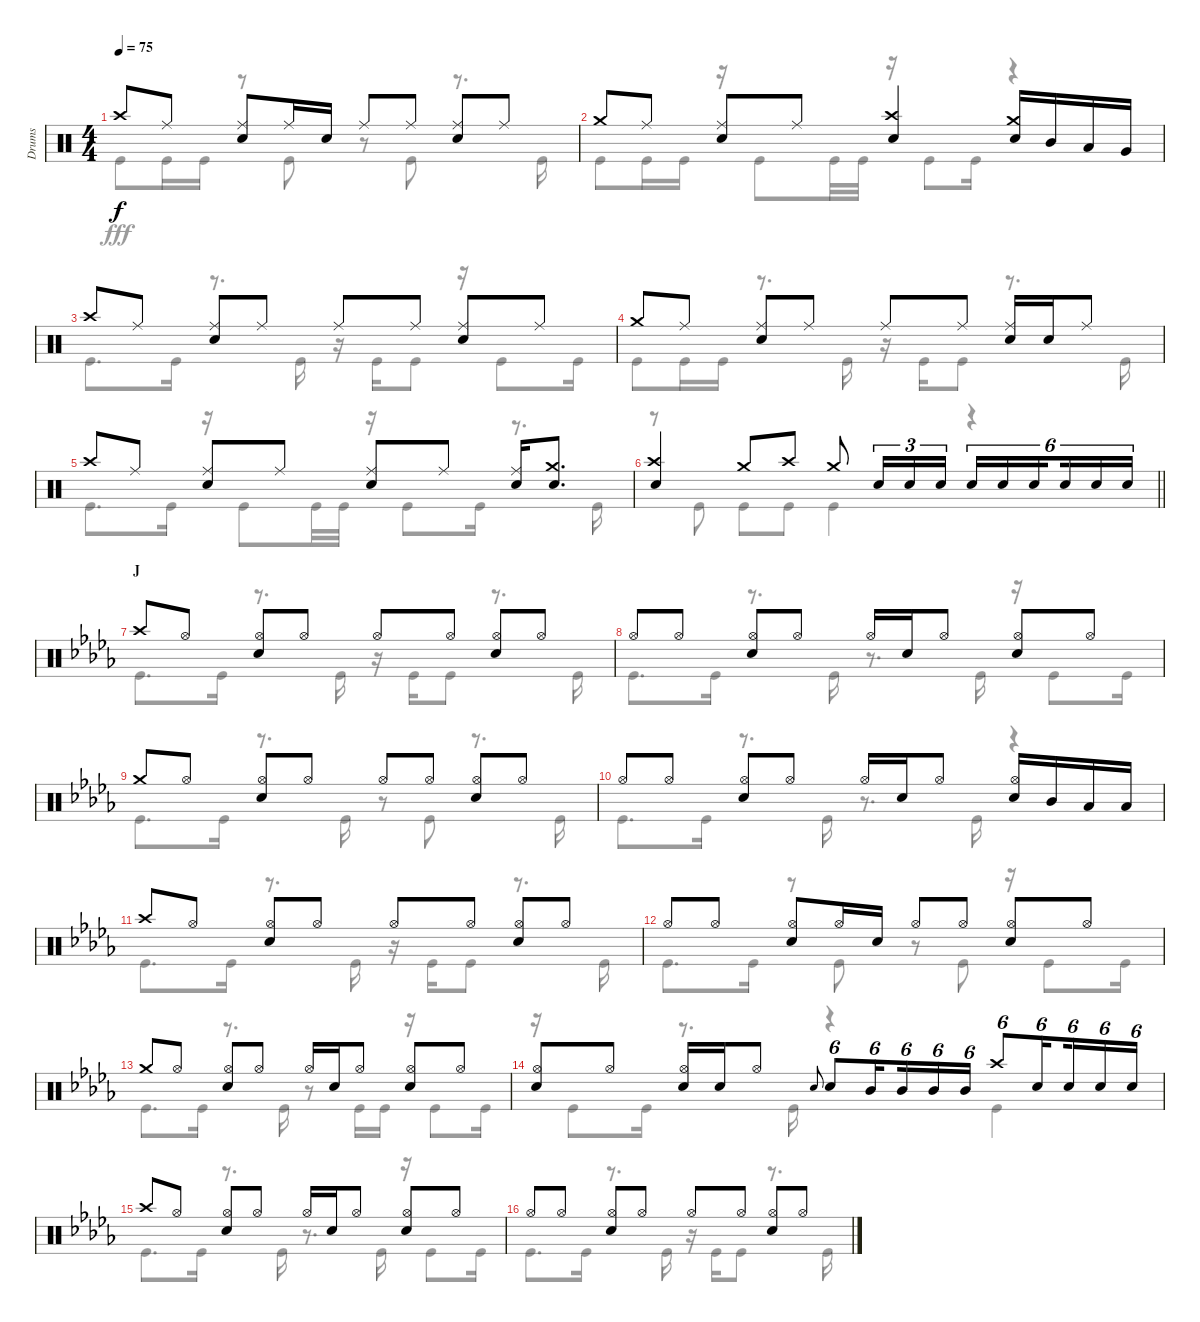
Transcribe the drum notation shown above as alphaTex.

\track ("Drums" "Drums") {instrument percussion}
\staff {score}
\articulation defaults
\voice
\ts (4 4)
\tempo 75
\clef neutral
\ks c "Crash high (hit)".8{dy f} "Ride (middle)".8
("Ride (middle)" "Snare (hit) 2").8 "Ride (middle)".16 "Snare (hit) 2".16 "Ride (middle)".8 "Ride (middle)".8 ("Ride (middle)" "Snare (hit) 2").8 "Ride (middle)".8 |
"Crash medium (hit)".8 "Ride (middle)".8 ("Ride (middle)" "Snare (hit) 2").8 "Ride (middle)".8 ("Crash high (hit)" "Snare (hit) 2").4 ("Crash medium (hit)" "Snare (hit) 2").16 "Mid Tom (hit)".16 "Low Tom (hit)".16 "Very Low Tom (hit)".16 |
"Crash high (hit)".8 "Ride (middle)".8 ("Ride (middle)" "Snare (hit) 2").8 "Ride (middle)".8 "Ride (middle)".8 "Ride (middle)".8 ("Ride (middle)" "Snare (hit) 2").8 "Ride (middle)".8 |
"Crash medium (hit)".8 "Ride (middle)".8 ("Ride (middle)" "Snare (hit) 2").8 "Ride (middle)".8 "Ride (middle)".8 "Ride (middle)".8 ("Ride (middle)" "Snare (hit) 2").16 "Snare (hit) 2".16 "Ride (middle)".8 |
"Crash high (hit)".8 "Ride (middle)".8 ("Ride (middle)" "Snare (hit) 2").8 "Ride (middle)".8 ("Ride (middle)" "Snare (hit) 2").8 "Ride (middle)".8 ("Ride (middle)" "Snare (hit) 2").16 ("Crash medium (hit)" "Snare (hit) 2").8{d} |
\barLineRight lightlight
("Crash high (hit)" "Snare (hit) 2").4 "Crash medium (hit)".8 "Crash high (hit)".8 "Crash medium (hit)".8 "Snare (hit) 2".16{tu (3 2)} "Snare (hit) 2".16{tu (3 2)} "Snare (hit) 2".16{tu (3 2)} "Snare (hit) 2".16{tu (6 4)} "Snare (hit) 2".16{tu (6 4)} "Snare (hit) 2".16{tu (6 4) beam splitsecondary} "Snare (hit) 2".16{tu (6 4)} "Snare (hit) 2".16{tu (6 4)} "Snare (hit) 2".16{tu (6 4)} |
\section ("" "J")
\ks db "Crash high (hit)".8 "Hi-Hat (open)".8
("Hi-Hat (open)" "Snare (hit) 2").8 "Hi-Hat (open)".8 "Hi-Hat (open)".8 "Hi-Hat (open)".8 ("Hi-Hat (open)" "Snare (hit) 2").8 "Hi-Hat (open)".8 |
"Hi-Hat (open)".8 "Hi-Hat (open)".8 ("Hi-Hat (open)" "Snare (hit) 2").8 "Hi-Hat (open)".8 "Hi-Hat (open)".16 "Snare (hit) 2".16 "Hi-Hat (open)".8 ("Hi-Hat (open)" "Snare (hit) 2").8 "Hi-Hat (open)".8 |
"Crash medium (hit)".8 "Hi-Hat (open)".8 ("Hi-Hat (open)" "Snare (hit) 2").8 "Hi-Hat (open)".8 "Hi-Hat (open)".8 "Hi-Hat (open)".8 ("Hi-Hat (open)" "Snare (hit) 2").8 "Hi-Hat (open)".8 |
"Hi-Hat (open)".8 "Hi-Hat (open)".8 ("Hi-Hat (open)" "Snare (hit) 2").8 "Hi-Hat (open)".8 "Hi-Hat (open)".16 "Snare (hit) 2".16 "Hi-Hat (open)".8 ("Hi-Hat (open)" "Snare (hit) 2").16 "Mid Tom (hit)".16 "Low Tom (hit)".16 "Low Tom (hit)".16 |
"Crash high (hit)".8 "Hi-Hat (open)".8 ("Hi-Hat (open)" "Snare (hit) 2").8 "Hi-Hat (open)".8 "Hi-Hat (open)".8 "Hi-Hat (open)".8 ("Hi-Hat (open)" "Snare (hit) 2").8 "Hi-Hat (open)".8 |
"Hi-Hat (open)".8 "Hi-Hat (open)".8 ("Hi-Hat (open)" "Snare (hit) 2").8 "Hi-Hat (open)".16 "Snare (hit) 2".16 "Hi-Hat (open)".8 "Hi-Hat (open)".8 ("Hi-Hat (open)" "Snare (hit) 2").8 "Hi-Hat (open)".8 |
"Crash medium (hit)".8 "Hi-Hat (open)".8 ("Hi-Hat (open)" "Snare (hit) 2").8 "Hi-Hat (open)".8 "Hi-Hat (open)".16 "Snare (hit) 2".16 "Hi-Hat (open)".8 ("Hi-Hat (open)" "Snare (hit) 2").8 "Hi-Hat (open)".8 |
("Hi-Hat (open)" "Snare (hit) 2").8 "Hi-Hat (open)".8 ("Hi-Hat (open)" "Snare (hit) 2").16 "Snare (hit) 2".16 "Hi-Hat (open)".8 "Snare (hit) 2".8{gr onbeat} "Snare (hit) 2".8{tu (6 4)} "Mid Tom (hit)".16{tu (6 4) beam splitsecondary} "Mid Tom (hit)".16{tu (6 4)} "Mid Tom (hit)".16{tu (6 4)} "Mid Tom (hit)".16{tu (6 4)} "Crash high (hit)".8{tu (6 4)} "Snare (hit) 2".16{tu (6 4) beam splitsecondary} "Snare (hit) 2".16{tu (6 4)} "Snare (hit) 2".16{tu (6 4)} "Snare (hit) 2".16{tu (6 4)} |
"Crash high (hit)".8 "Hi-Hat (open)".8 ("Hi-Hat (open)" "Snare (hit) 2").8 "Hi-Hat (open)".8 "Hi-Hat (open)".16 "Snare (hit) 2".16 "Hi-Hat (open)".8 ("Hi-Hat (open)" "Snare (hit) 2").8 "Hi-Hat (open)".8 |
"Hi-Hat (open)".8 "Hi-Hat (open)".8 ("Hi-Hat (open)" "Snare (hit) 2").8 "Hi-Hat (open)".8 "Hi-Hat (open)".8 "Hi-Hat (open)".8 ("Hi-Hat (open)" "Snare (hit) 2").8 "Hi-Hat (open)".8
\voice
\clef neutral
\ottava regular
\simile none
\ks c "Kick (hit)".8{dy fff} "Kick (hit)".16 "Kick (hit)".16
r.8 "Kick (hit)".8 r.8 "Kick (hit)".8 r.8{d} "Kick (hit)".16 |
"Kick (hit)".8 "Kick (hit)".16 "Kick (hit)".16 r.16 "Kick (hit)".8 "Kick (hit)".32 "Kick (hit)".32 r.16 "Kick (hit)".8 "Kick (hit)".16 r.4 |
"Kick (hit)".8{d} "Kick (hit)".16 r.8{d} "Kick (hit)".16 r.16 "Kick (hit)".16 "Kick (hit)".8 r.16 "Kick (hit)".8 "Kick (hit)".16 |
"Kick (hit)".8 "Kick (hit)".16 "Kick (hit)".16 r.8{d} "Kick (hit)".16 r.16 "Kick (hit)".16 "Kick (hit)".8 r.8{d} "Kick (hit)".16 |
"Kick (hit)".8{d} "Kick (hit)".16 r.16 "Kick (hit)".8 "Kick (hit)".32 "Kick (hit)".32 r.16 "Kick (hit)".8 "Kick (hit)".16 r.8{d} "Kick (hit)".16 |
\barLineRight lightlight
r.8 "Kick (hit)".8 "Kick (hit)".8 "Kick (hit)".8 "Kick (hit)".4 r.4 |
\ks db "Kick (hit)".8{d} "Kick (hit)".16
r.8{d} "Kick (hit)".16 r.16 "Kick (hit)".16 "Kick (hit)".8 r.8{d} "Kick (hit)".16 |
"Kick (hit)".8{d} "Kick (hit)".16 r.8{d} "Kick (hit)".16 r.8{d} "Kick (hit)".16 r.16 "Kick (hit)".8 "Kick (hit)".16 |
"Kick (hit)".8{d} "Kick (hit)".16 r.8{d} "Kick (hit)".16 r.8 "Kick (hit)".8 r.8{d} "Kick (hit)".16 |
"Kick (hit)".8{d} "Kick (hit)".16 r.8{d} "Kick (hit)".16 r.8{d} "Kick (hit)".16 r.4 |
"Kick (hit)".8{d} "Kick (hit)".16 r.8{d} "Kick (hit)".16 r.16 "Kick (hit)".16 "Kick (hit)".8 r.8{d} "Kick (hit)".16 |
"Kick (hit)".8{d} "Kick (hit)".16 r.8 "Kick (hit)".8 r.8 "Kick (hit)".8 r.16 "Kick (hit)".8 "Kick (hit)".16 |
"Kick (hit)".8{d} "Kick (hit)".16 r.8{d} "Kick (hit)".16 r.8 "Kick (hit)".16 "Kick (hit)".16 r.16 "Kick (hit)".8 "Kick (hit)".16 |
r.16 "Kick (hit)".8 "Kick (hit)".16 r.8{d} "Kick (hit)".16 r.4 "Kick (hit)".4 |
"Kick (hit)".8{d} "Kick (hit)".16 r.8{d} "Kick (hit)".16 r.8{d} "Kick (hit)".16 r.16 "Kick (hit)".8 "Kick (hit)".16 |
"Kick (hit)".8{d} "Kick (hit)".16 r.8{d} "Kick (hit)".16 r.16 "Kick (hit)".16 "Kick (hit)".8 r.8{d} "Kick (hit)".16
